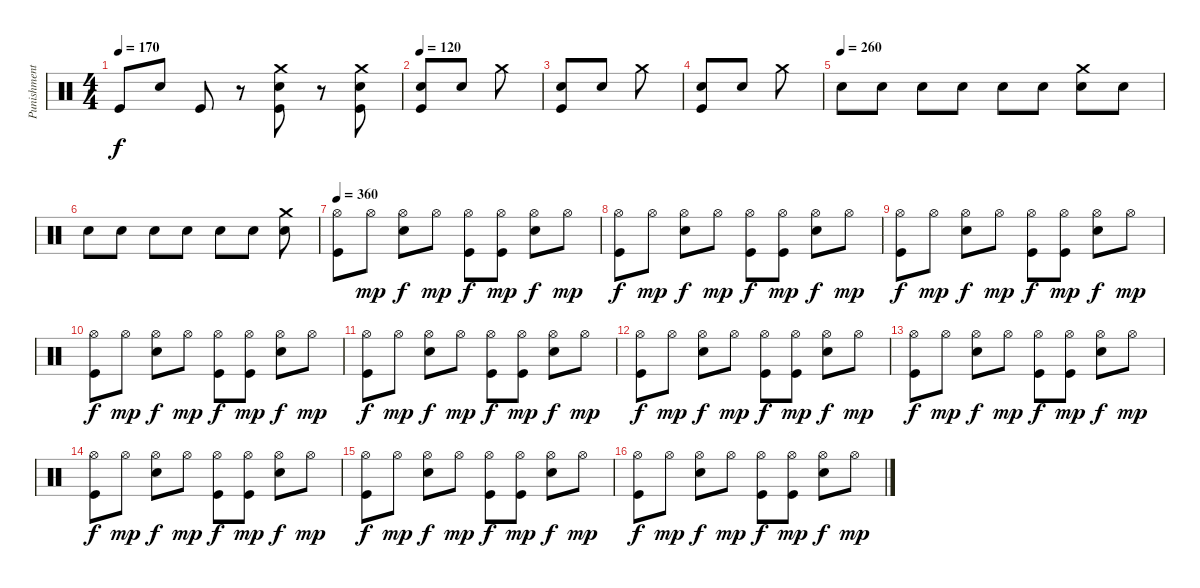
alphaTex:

\track ("Punishment" "Punishment") {instrument percussion}
\staff {score}
\articulation defaults
\ts (4 4)
\tempo 170
\clef neutral
\ks c "Kick (hit)".8{dy f} "Electric Snare (hit)".8 "Kick (hit)".8
r.8 ("Crash medium (hit)" "Kick (hit)" "Electric Snare (hit)").8 r.8 ("Crash medium (hit)" "Kick (hit)" "Electric Snare (hit)").8 |
\tempo 120
("Electric Snare (hit)" "Kick (hit)").8 "Electric Snare (hit)".8 "Crash medium (hit)".8 |
("Electric Snare (hit)" "Kick (hit)").8 "Electric Snare (hit)".8 "Crash medium (hit)".8 |
("Electric Snare (hit)" "Kick (hit)").8 "Electric Snare (hit)".8 "Crash medium (hit)".8 |
\tempo (260)
"Electric Snare (hit)".8 "Electric Snare (hit)".8 "Electric Snare (hit)".8 "Electric Snare (hit)".8 "Electric Snare (hit)".8 "Electric Snare (hit)".8 ("Electric Snare (hit)" "Crash medium (hit)").8 "Electric Snare (hit)".8 |
"Electric Snare (hit)".8 "Electric Snare (hit)".8 "Electric Snare (hit)".8 "Electric Snare (hit)".8 "Electric Snare (hit)".8 "Electric Snare (hit)".8 ("Electric Snare (hit)" "Crash medium (hit)").8 |
\tempo 360
("Hi-Hat (open)" "Kick (hit)").8 "Hi-Hat (open)".8{dy mp} ("Hi-Hat (open)" "Electric Snare (hit)").8{dy f} "Hi-Hat (open)".8{dy mp} ("Hi-Hat (open)" "Kick (hit)").8{dy f} ("Hi-Hat (open)" "Kick (hit)").8{dy mp} ("Hi-Hat (open)" "Electric Snare (hit)").8{dy f} "Hi-Hat (open)".8{dy mp} |
("Hi-Hat (open)" "Kick (hit)").8{dy f} "Hi-Hat (open)".8{dy mp} ("Hi-Hat (open)" "Electric Snare (hit)").8{dy f} "Hi-Hat (open)".8{dy mp} ("Hi-Hat (open)" "Kick (hit)").8{dy f} ("Hi-Hat (open)" "Kick (hit)").8{dy mp} ("Hi-Hat (open)" "Electric Snare (hit)").8{dy f} "Hi-Hat (open)".8{dy mp} |
("Hi-Hat (open)" "Kick (hit)").8{dy f} "Hi-Hat (open)".8{dy mp} ("Hi-Hat (open)" "Electric Snare (hit)").8{dy f} "Hi-Hat (open)".8{dy mp} ("Hi-Hat (open)" "Kick (hit)").8{dy f} ("Hi-Hat (open)" "Kick (hit)").8{dy mp} ("Hi-Hat (open)" "Electric Snare (hit)").8{dy f} "Hi-Hat (open)".8{dy mp} |
("Hi-Hat (open)" "Kick (hit)").8{dy f} "Hi-Hat (open)".8{dy mp} ("Hi-Hat (open)" "Electric Snare (hit)").8{dy f} "Hi-Hat (open)".8{dy mp} ("Hi-Hat (open)" "Kick (hit)").8{dy f} ("Hi-Hat (open)" "Kick (hit)").8{dy mp} ("Hi-Hat (open)" "Electric Snare (hit)").8{dy f} "Hi-Hat (open)".8{dy mp} |
("Hi-Hat (open)" "Kick (hit)").8{dy f} "Hi-Hat (open)".8{dy mp} ("Hi-Hat (open)" "Electric Snare (hit)").8{dy f} "Hi-Hat (open)".8{dy mp} ("Hi-Hat (open)" "Kick (hit)").8{dy f} ("Hi-Hat (open)" "Kick (hit)").8{dy mp} ("Hi-Hat (open)" "Electric Snare (hit)").8{dy f} "Hi-Hat (open)".8{dy mp} |
("Hi-Hat (open)" "Kick (hit)").8{dy f} "Hi-Hat (open)".8{dy mp} ("Hi-Hat (open)" "Electric Snare (hit)").8{dy f} "Hi-Hat (open)".8{dy mp} ("Hi-Hat (open)" "Kick (hit)").8{dy f} ("Hi-Hat (open)" "Kick (hit)").8{dy mp} ("Hi-Hat (open)" "Electric Snare (hit)").8{dy f} "Hi-Hat (open)".8{dy mp} |
("Hi-Hat (open)" "Kick (hit)").8{dy f} "Hi-Hat (open)".8{dy mp} ("Hi-Hat (open)" "Electric Snare (hit)").8{dy f} "Hi-Hat (open)".8{dy mp} ("Hi-Hat (open)" "Kick (hit)").8{dy f} ("Hi-Hat (open)" "Kick (hit)").8{dy mp} ("Hi-Hat (open)" "Electric Snare (hit)").8{dy f} "Hi-Hat (open)".8{dy mp} |
("Hi-Hat (open)" "Kick (hit)").8{dy f} "Hi-Hat (open)".8{dy mp} ("Hi-Hat (open)" "Electric Snare (hit)").8{dy f} "Hi-Hat (open)".8{dy mp} ("Hi-Hat (open)" "Kick (hit)").8{dy f} ("Hi-Hat (open)" "Kick (hit)").8{dy mp} ("Hi-Hat (open)" "Electric Snare (hit)").8{dy f} "Hi-Hat (open)".8{dy mp} |
("Hi-Hat (open)" "Kick (hit)").8{dy f} "Hi-Hat (open)".8{dy mp} ("Hi-Hat (open)" "Electric Snare (hit)").8{dy f} "Hi-Hat (open)".8{dy mp} ("Hi-Hat (open)" "Kick (hit)").8{dy f} ("Hi-Hat (open)" "Kick (hit)").8{dy mp} ("Hi-Hat (open)" "Electric Snare (hit)").8{dy f} "Hi-Hat (open)".8{dy mp} |
("Hi-Hat (open)" "Kick (hit)").8{dy f} "Hi-Hat (open)".8{dy mp} ("Hi-Hat (open)" "Electric Snare (hit)").8{dy f} "Hi-Hat (open)".8{dy mp} ("Hi-Hat (open)" "Kick (hit)").8{dy f} ("Hi-Hat (open)" "Kick (hit)").8{dy mp} ("Hi-Hat (open)" "Electric Snare (hit)").8{dy f} "Hi-Hat (open)".8{dy mp}
